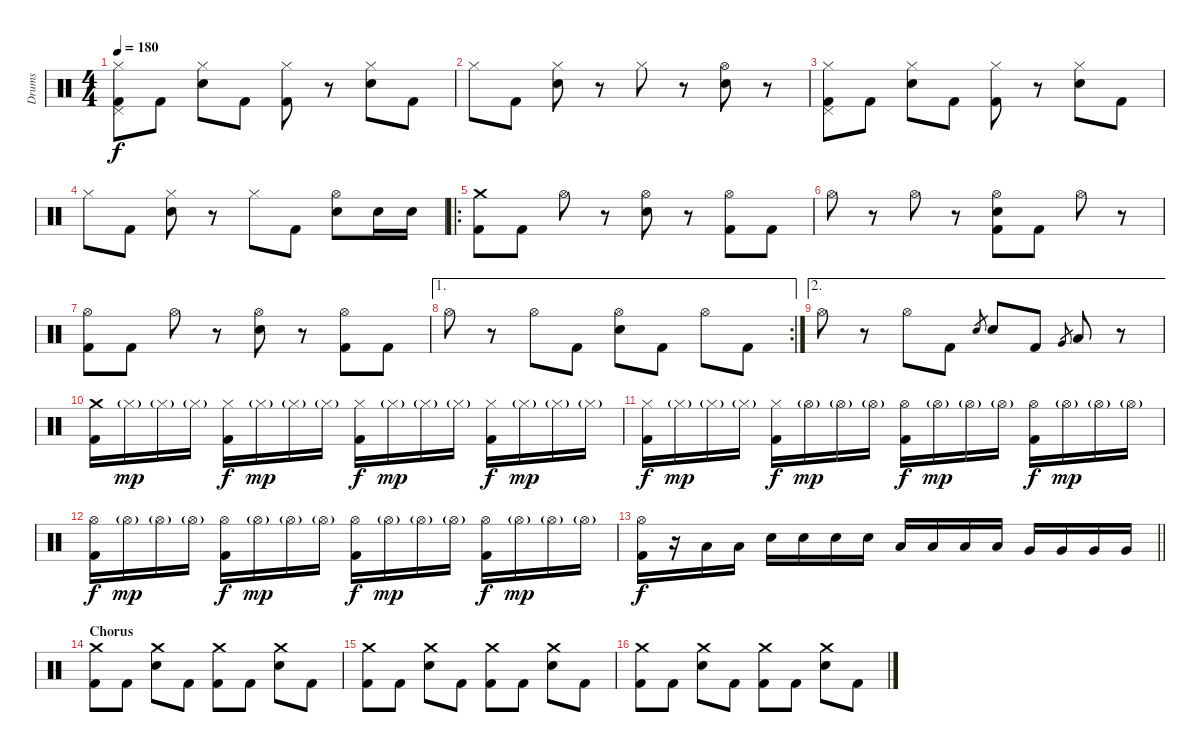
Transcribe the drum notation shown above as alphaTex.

\track ("Drums" "Drums") {instrument percussion}
\staff {score}
\articulation defaults
\ts (4 4)
\tempo 180
\clef neutral
\ks c
("Hi-Hat (closed)" "Pedal Hi-Hat (hit)" "Kick (hit) 2").8{dy f} "Kick (hit) 2".8 ("Hi-Hat (closed)" "Electric Snare (hit)").8 "Kick (hit) 2".8 ("Hi-Hat (closed)" "Kick (hit) 2").8 r.8 ("Hi-Hat (closed)" "Electric Snare (hit)").8 "Kick (hit) 2".8 |
"Hi-Hat (closed)".8 "Kick (hit) 2".8 ("Hi-Hat (closed)" "Electric Snare (hit)").8 r.8 "Hi-Hat (closed)".8 r.8 ("Hi-Hat (open)" "Electric Snare (hit)").8 r.8 |
("Hi-Hat (closed)" "Pedal Hi-Hat (hit)" "Kick (hit) 2").8 "Kick (hit) 2".8 ("Hi-Hat (closed)" "Electric Snare (hit)").8 "Kick (hit) 2".8 ("Hi-Hat (closed)" "Kick (hit) 2").8 r.8 ("Hi-Hat (closed)" "Electric Snare (hit)").8 "Kick (hit) 2".8 |
"Hi-Hat (closed)".8 "Kick (hit) 2".8 ("Hi-Hat (closed)" "Electric Snare (hit)").8 r.8 "Hi-Hat (closed)".8 "Kick (hit) 2".8 ("Hi-Hat (open)" "Electric Snare (hit)").8 "Electric Snare (hit)".16 "Electric Snare (hit)".16 |
\ro
("Crash medium (hit)" "Kick (hit) 2").8 "Kick (hit) 2".8 "Hi-Hat (open)".8 r.8 ("Hi-Hat (open)" "Electric Snare (hit)").8 r.8 ("Hi-Hat (open)" "Kick (hit) 2").8 "Kick (hit) 2".8 |
"Hi-Hat (open)".8 r.8 "Hi-Hat (open)".8 r.8 ("Hi-Hat (open)" "Electric Snare (hit)" "Kick (hit) 2").8 "Kick (hit) 2".8 "Hi-Hat (open)".8 r.8 |
("Hi-Hat (open)" "Kick (hit) 2").8 "Kick (hit) 2".8 "Hi-Hat (open)".8 r.8 ("Hi-Hat (open)" "Electric Snare (hit)").8 r.8 ("Hi-Hat (open)" "Kick (hit) 2").8 "Kick (hit) 2".8 |
\ae 1
\rc 2 "Hi-Hat (open)".8
r.8 "Hi-Hat (open)".8 "Kick (hit) 2".8 ("Hi-Hat (open)" "Electric Snare (hit)").8 "Kick (hit) 2".8 "Hi-Hat (open)".8 "Kick (hit) 2".8 |
\ae 2 "Hi-Hat (open)".8
r.8 "Hi-Hat (open)".8 "Kick (hit) 2".8 "Electric Snare (hit)".8{gr} "Electric Snare (hit)".8 "Kick (hit) 2".8 "Very Low Tom (hit)".8{gr} "Low Tom (hit)".8 r.8 |
("Crash medium (hit)" "Kick (hit) 2").16 "Hi-Hat (closed)"{g}.16{dy mp} "Hi-Hat (closed)"{g}.16 "Hi-Hat (closed)"{g}.16 ("Hi-Hat (closed)" "Kick (hit) 2").16{dy f} "Hi-Hat (closed)"{g}.16{dy mp} "Hi-Hat (closed)"{g}.16 "Hi-Hat (closed)"{g}.16 ("Hi-Hat (closed)" "Kick (hit) 2").16{dy f} "Hi-Hat (closed)"{g}.16{dy mp} "Hi-Hat (closed)"{g}.16 "Hi-Hat (closed)"{g}.16 ("Hi-Hat (closed)" "Kick (hit) 2").16{dy f} "Hi-Hat (closed)"{g}.16{dy mp} "Hi-Hat (closed)"{g}.16 "Hi-Hat (closed)"{g}.16 |
("Hi-Hat (closed)" "Kick (hit) 2").16{dy f} "Hi-Hat (closed)"{g}.16{dy mp} "Hi-Hat (closed)"{g}.16 "Hi-Hat (closed)"{g}.16 ("Hi-Hat (closed)" "Kick (hit) 2").16{dy f} "Hi-Hat (open)"{g}.16{dy mp} "Hi-Hat (open)"{g}.16 "Hi-Hat (open)"{g}.16 ("Hi-Hat (open)" "Kick (hit) 2").16{dy f} "Hi-Hat (open)"{g}.16{dy mp} "Hi-Hat (open)"{g}.16 "Hi-Hat (open)"{g}.16 ("Hi-Hat (open)" "Kick (hit) 2").16{dy f} "Hi-Hat (open)"{g}.16{dy mp} "Hi-Hat (open)"{g}.16 "Hi-Hat (open)"{g}.16 |
("Hi-Hat (open)" "Kick (hit) 2").16{dy f} "Hi-Hat (open)"{g}.16{dy mp} "Hi-Hat (open)"{g}.16 "Hi-Hat (open)"{g}.16 ("Hi-Hat (open)" "Kick (hit) 2").16{dy f} "Hi-Hat (open)"{g}.16{dy mp} "Hi-Hat (open)"{g}.16 "Hi-Hat (open)"{g}.16 ("Hi-Hat (open)" "Kick (hit) 2").16{dy f} "Hi-Hat (open)"{g}.16{dy mp} "Hi-Hat (open)"{g}.16 "Hi-Hat (open)"{g}.16 ("Hi-Hat (open)" "Kick (hit) 2").16{dy f} "Hi-Hat (open)"{g}.16{dy mp} "Hi-Hat (open)"{g}.16 "Hi-Hat (open)"{g}.16 |
\barLineRight lightlight
("Hi-Hat (open)" "Kick (hit) 2").16{dy f} r.16 "Low Tom (hit)".16 "Low Tom (hit)".16 "Electric Snare (hit)".16 "Electric Snare (hit)".16 "Electric Snare (hit)".16 "Electric Snare (hit)".16 "Low Tom (hit)".16 "Low Tom (hit)".16 "Low Tom (hit)".16 "Low Tom (hit)".16 "Very Low Tom (hit)".16 "Very Low Tom (hit)".16 "Very Low Tom (hit)".16 "Very Low Tom (hit)".16 |
\section ("" "Chorus")
("Crash medium (hit)" "Kick (hit) 2").8 "Kick (hit) 2".8 ("Crash medium (hit)" "Electric Snare (hit)").8 "Kick (hit) 2".8 ("Crash medium (hit)" "Kick (hit) 2").8 "Kick (hit) 2".8 ("Crash medium (hit)" "Electric Snare (hit)").8 "Kick (hit) 2".8 |
("Crash medium (hit)" "Kick (hit) 2").8 "Kick (hit) 2".8 ("Crash medium (hit)" "Electric Snare (hit)").8 "Kick (hit) 2".8 ("Crash medium (hit)" "Kick (hit) 2").8 "Kick (hit) 2".8 ("Crash medium (hit)" "Electric Snare (hit)").8 "Kick (hit) 2".8 |
("Crash medium (hit)" "Kick (hit) 2").8 "Kick (hit) 2".8 ("Crash medium (hit)" "Electric Snare (hit)").8 "Kick (hit) 2".8 ("Crash medium (hit)" "Kick (hit) 2").8 "Kick (hit) 2".8 ("Crash medium (hit)" "Electric Snare (hit)").8 "Kick (hit) 2".8
